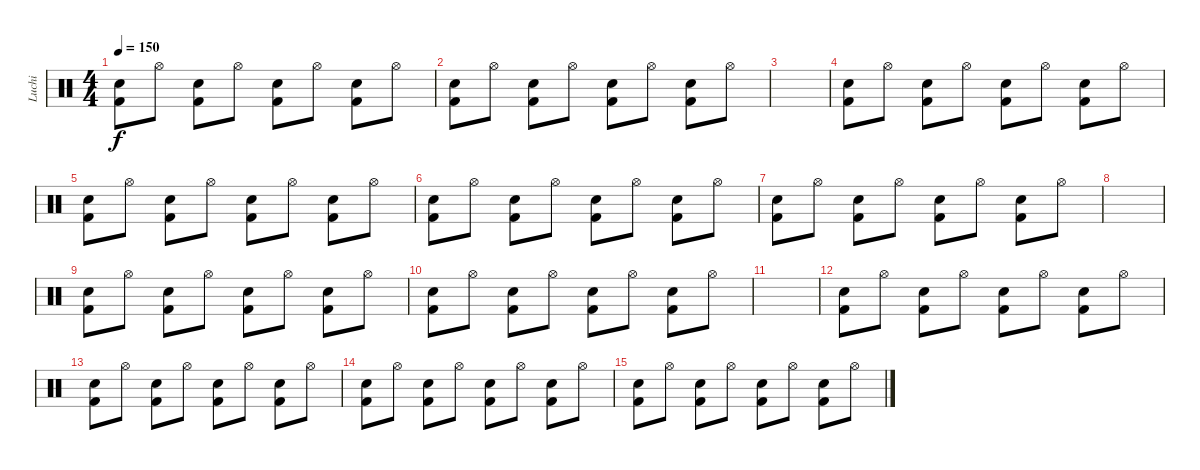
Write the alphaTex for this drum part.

\track ("Luchi" "Luchi") {instrument percussion}
\staff {score}
\articulation defaults
\ts (4 4)
\tempo 150
\clef neutral
\ks c
("Snare (hit) 2" "Kick (hit) 2").8{dy f} "Hi-Hat (open)".8 ("Snare (hit) 2" "Kick (hit) 2").8 "Hi-Hat (open)".8 ("Snare (hit) 2" "Kick (hit) 2").8 "Hi-Hat (open)".8 ("Snare (hit) 2" "Kick (hit) 2").8 "Hi-Hat (open)".8 |
("Snare (hit) 2" "Kick (hit) 2").8 "Hi-Hat (open)".8 ("Snare (hit) 2" "Kick (hit) 2").8 "Hi-Hat (open)".8 ("Snare (hit) 2" "Kick (hit) 2").8 "Hi-Hat (open)".8 ("Snare (hit) 2" "Kick (hit) 2").8 "Hi-Hat (open)".8 |
|
("Snare (hit) 2" "Kick (hit) 2").8 "Hi-Hat (open)".8 ("Snare (hit) 2" "Kick (hit) 2").8 "Hi-Hat (open)".8 ("Snare (hit) 2" "Kick (hit) 2").8 "Hi-Hat (open)".8 ("Snare (hit) 2" "Kick (hit) 2").8 "Hi-Hat (open)".8 |
("Snare (hit) 2" "Kick (hit) 2").8 "Hi-Hat (open)".8 ("Snare (hit) 2" "Kick (hit) 2").8 "Hi-Hat (open)".8 ("Snare (hit) 2" "Kick (hit) 2").8 "Hi-Hat (open)".8 ("Snare (hit) 2" "Kick (hit) 2").8 "Hi-Hat (open)".8 |
("Snare (hit) 2" "Kick (hit) 2").8 "Hi-Hat (open)".8 ("Snare (hit) 2" "Kick (hit) 2").8 "Hi-Hat (open)".8 ("Snare (hit) 2" "Kick (hit) 2").8 "Hi-Hat (open)".8 ("Snare (hit) 2" "Kick (hit) 2").8 "Hi-Hat (open)".8 |
("Snare (hit) 2" "Kick (hit) 2").8 "Hi-Hat (open)".8 ("Snare (hit) 2" "Kick (hit) 2").8 "Hi-Hat (open)".8 ("Snare (hit) 2" "Kick (hit) 2").8 "Hi-Hat (open)".8 ("Snare (hit) 2" "Kick (hit) 2").8 "Hi-Hat (open)".8 |
|
("Snare (hit) 2" "Kick (hit) 2").8 "Hi-Hat (open)".8 ("Snare (hit) 2" "Kick (hit) 2").8 "Hi-Hat (open)".8 ("Snare (hit) 2" "Kick (hit) 2").8 "Hi-Hat (open)".8 ("Snare (hit) 2" "Kick (hit) 2").8 "Hi-Hat (open)".8 |
("Snare (hit) 2" "Kick (hit) 2").8 "Hi-Hat (open)".8 ("Snare (hit) 2" "Kick (hit) 2").8 "Hi-Hat (open)".8 ("Snare (hit) 2" "Kick (hit) 2").8 "Hi-Hat (open)".8 ("Snare (hit) 2" "Kick (hit) 2").8 "Hi-Hat (open)".8 |
|
("Snare (hit) 2" "Kick (hit) 2").8 "Hi-Hat (open)".8 ("Snare (hit) 2" "Kick (hit) 2").8 "Hi-Hat (open)".8 ("Snare (hit) 2" "Kick (hit) 2").8 "Hi-Hat (open)".8 ("Snare (hit) 2" "Kick (hit) 2").8 "Hi-Hat (open)".8 |
("Snare (hit) 2" "Kick (hit) 2").8 "Hi-Hat (open)".8 ("Snare (hit) 2" "Kick (hit) 2").8 "Hi-Hat (open)".8 ("Snare (hit) 2" "Kick (hit) 2").8 "Hi-Hat (open)".8 ("Snare (hit) 2" "Kick (hit) 2").8 "Hi-Hat (open)".8 |
("Snare (hit) 2" "Kick (hit) 2").8 "Hi-Hat (open)".8 ("Snare (hit) 2" "Kick (hit) 2").8 "Hi-Hat (open)".8 ("Snare (hit) 2" "Kick (hit) 2").8 "Hi-Hat (open)".8 ("Snare (hit) 2" "Kick (hit) 2").8 "Hi-Hat (open)".8 |
("Snare (hit) 2" "Kick (hit) 2").8 "Hi-Hat (open)".8 ("Snare (hit) 2" "Kick (hit) 2").8 "Hi-Hat (open)".8 ("Snare (hit) 2" "Kick (hit) 2").8 "Hi-Hat (open)".8 ("Snare (hit) 2" "Kick (hit) 2").8 "Hi-Hat (open)".8
